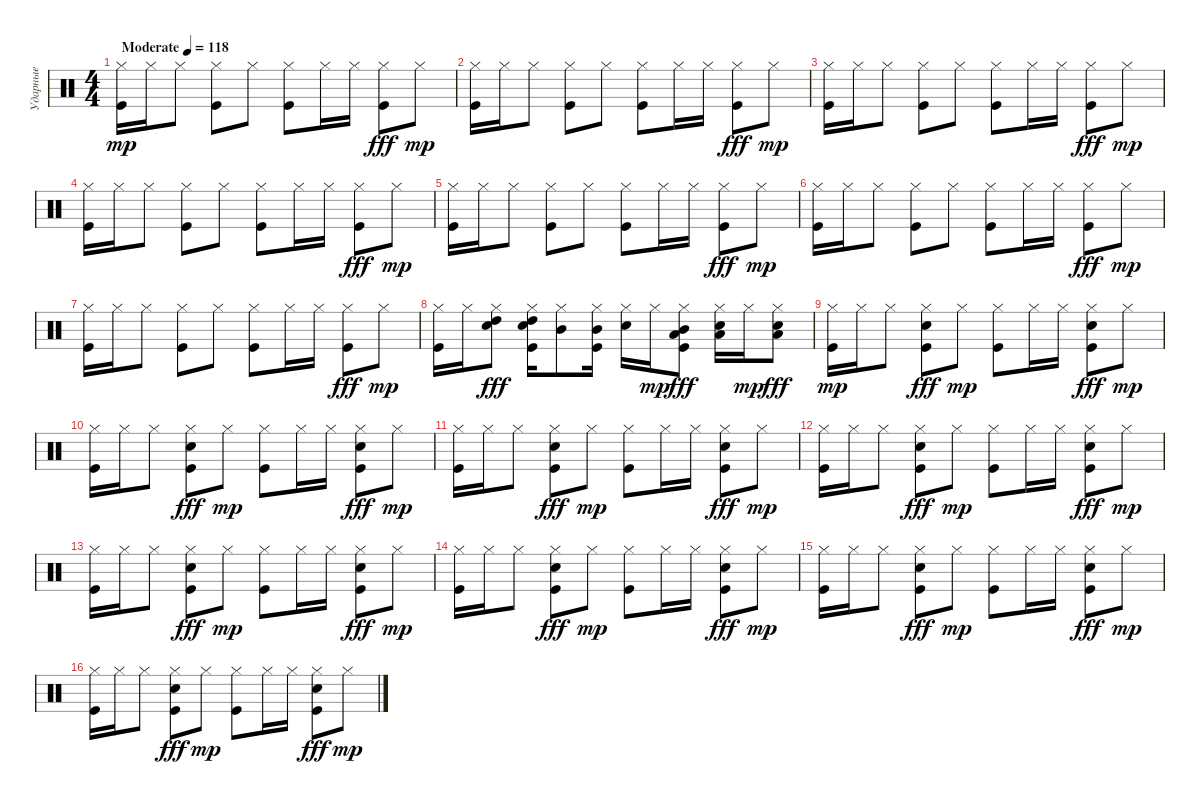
\track ("Ударные" "Ударные") {instrument percussion}
\staff {score}
\articulation defaults
\ts (4 4)
\tempo (118 "Moderate")
\clef neutral
\ks c
("Kick (hit)" "Hi-Hat (closed)").16{dy mp} "Hi-Hat (closed)".16 "Hi-Hat (closed)".8 ("Kick (hit)" "Hi-Hat (closed)").8 "Hi-Hat (closed)".8 ("Kick (hit)" "Hi-Hat (closed)").8 "Hi-Hat (closed)".16 "Hi-Hat (closed)".16 ("Hi-Hat (closed)" "Kick (hit)").8{dy fff} "Hi-Hat (closed)".8{dy mp} |
("Kick (hit)" "Hi-Hat (closed)").16 "Hi-Hat (closed)".16 "Hi-Hat (closed)".8 ("Kick (hit)" "Hi-Hat (closed)").8 "Hi-Hat (closed)".8 ("Kick (hit)" "Hi-Hat (closed)").8 "Hi-Hat (closed)".16 "Hi-Hat (closed)".16 ("Hi-Hat (closed)" "Kick (hit)").8{dy fff} "Hi-Hat (closed)".8{dy mp} |
("Kick (hit)" "Hi-Hat (closed)").16 "Hi-Hat (closed)".16 "Hi-Hat (closed)".8 ("Kick (hit)" "Hi-Hat (closed)").8 "Hi-Hat (closed)".8 ("Kick (hit)" "Hi-Hat (closed)").8 "Hi-Hat (closed)".16 "Hi-Hat (closed)".16 ("Hi-Hat (closed)" "Kick (hit)").8{dy fff} "Hi-Hat (closed)".8{dy mp} |
("Kick (hit)" "Hi-Hat (closed)").16 "Hi-Hat (closed)".16 "Hi-Hat (closed)".8 ("Kick (hit)" "Hi-Hat (closed)").8 "Hi-Hat (closed)".8 ("Kick (hit)" "Hi-Hat (closed)").8 "Hi-Hat (closed)".16 "Hi-Hat (closed)".16 ("Hi-Hat (closed)" "Kick (hit)").8{dy fff} "Hi-Hat (closed)".8{dy mp} |
("Kick (hit)" "Hi-Hat (closed)").16 "Hi-Hat (closed)".16 "Hi-Hat (closed)".8 ("Kick (hit)" "Hi-Hat (closed)").8 "Hi-Hat (closed)".8 ("Kick (hit)" "Hi-Hat (closed)").8 "Hi-Hat (closed)".16 "Hi-Hat (closed)".16 ("Hi-Hat (closed)" "Kick (hit)").8{dy fff} "Hi-Hat (closed)".8{dy mp} |
("Kick (hit)" "Hi-Hat (closed)").16 "Hi-Hat (closed)".16 "Hi-Hat (closed)".8 ("Kick (hit)" "Hi-Hat (closed)").8 "Hi-Hat (closed)".8 ("Kick (hit)" "Hi-Hat (closed)").8 "Hi-Hat (closed)".16 "Hi-Hat (closed)".16 ("Hi-Hat (closed)" "Kick (hit)").8{dy fff} "Hi-Hat (closed)".8{dy mp} |
("Kick (hit)" "Hi-Hat (closed)").16 "Hi-Hat (closed)".16 "Hi-Hat (closed)".8 ("Kick (hit)" "Hi-Hat (closed)").8 "Hi-Hat (closed)".8 ("Kick (hit)" "Hi-Hat (closed)").8 "Hi-Hat (closed)".16 "Hi-Hat (closed)".16 ("Hi-Hat (closed)" "Kick (hit)").8{dy fff} "Hi-Hat (closed)".8{dy mp} |
("Kick (hit)" "Hi-Hat (closed)").16 "Hi-Hat (closed)".16 ("Hi-Hat (closed)" "High Tom (hit)" "Electric Snare (hit)").8{dy fff} ("Kick (hit)" "Hi-Hat (closed)" "High Tom (hit)" "Electric Snare (hit)").16 ("Hi-Hat (closed)" "Mid Tom (hit)").8 ("Kick (hit)" "Hi-Hat (closed)" "Mid Tom (hit)").16 ("Hi-Hat (closed)" "Snare (hit) 2").16 "Hi-Hat (closed)".16{dy mp} ("Hi-Hat (closed)" "Kick (hit)" "Low Tom (hit)" "Mid Tom (hit)").8{dy fff} ("Hi-Hat (closed)" "Low Tom (hit)" "Electric Snare (hit)").16 "Hi-Hat (closed)".16{dy mp} ("Low Tom (hit)" "Hi-Hat (closed)" "Electric Snare (hit)").8{dy fff} |
("Kick (hit)" "Hi-Hat (closed)").16{dy mp} "Hi-Hat (closed)".16 "Hi-Hat (closed)".8 ("Kick (hit)" "Hi-Hat (closed)" "Electric Snare (hit)").8{dy fff} "Hi-Hat (closed)".8{dy mp} ("Kick (hit)" "Hi-Hat (closed)").8 "Hi-Hat (closed)".16 "Hi-Hat (closed)".16 ("Hi-Hat (closed)" "Kick (hit)" "Electric Snare (hit)").8{dy fff} "Hi-Hat (closed)".8{dy mp} |
("Kick (hit)" "Hi-Hat (closed)").16 "Hi-Hat (closed)".16 "Hi-Hat (closed)".8 ("Kick (hit)" "Hi-Hat (closed)" "Electric Snare (hit)").8{dy fff} "Hi-Hat (closed)".8{dy mp} ("Kick (hit)" "Hi-Hat (closed)").8 "Hi-Hat (closed)".16 "Hi-Hat (closed)".16 ("Hi-Hat (closed)" "Kick (hit)" "Electric Snare (hit)").8{dy fff} "Hi-Hat (closed)".8{dy mp} |
("Kick (hit)" "Hi-Hat (closed)").16 "Hi-Hat (closed)".16 "Hi-Hat (closed)".8 ("Kick (hit)" "Hi-Hat (closed)" "Electric Snare (hit)").8{dy fff} "Hi-Hat (closed)".8{dy mp} ("Kick (hit)" "Hi-Hat (closed)").8 "Hi-Hat (closed)".16 "Hi-Hat (closed)".16 ("Hi-Hat (closed)" "Kick (hit)" "Electric Snare (hit)").8{dy fff} "Hi-Hat (closed)".8{dy mp} |
("Kick (hit)" "Hi-Hat (closed)").16 "Hi-Hat (closed)".16 "Hi-Hat (closed)".8 ("Kick (hit)" "Hi-Hat (closed)" "Electric Snare (hit)").8{dy fff} "Hi-Hat (closed)".8{dy mp} ("Kick (hit)" "Hi-Hat (closed)").8 "Hi-Hat (closed)".16 "Hi-Hat (closed)".16 ("Hi-Hat (closed)" "Kick (hit)" "Electric Snare (hit)").8{dy fff} "Hi-Hat (closed)".8{dy mp} |
("Kick (hit)" "Hi-Hat (closed)").16 "Hi-Hat (closed)".16 "Hi-Hat (closed)".8 ("Kick (hit)" "Hi-Hat (closed)" "Electric Snare (hit)").8{dy fff} "Hi-Hat (closed)".8{dy mp} ("Kick (hit)" "Hi-Hat (closed)").8 "Hi-Hat (closed)".16 "Hi-Hat (closed)".16 ("Hi-Hat (closed)" "Kick (hit)" "Electric Snare (hit)").8{dy fff} "Hi-Hat (closed)".8{dy mp} |
("Kick (hit)" "Hi-Hat (closed)").16 "Hi-Hat (closed)".16 "Hi-Hat (closed)".8 ("Kick (hit)" "Hi-Hat (closed)" "Electric Snare (hit)").8{dy fff} "Hi-Hat (closed)".8{dy mp} ("Kick (hit)" "Hi-Hat (closed)").8 "Hi-Hat (closed)".16 "Hi-Hat (closed)".16 ("Hi-Hat (closed)" "Kick (hit)" "Electric Snare (hit)").8{dy fff} "Hi-Hat (closed)".8{dy mp} |
("Kick (hit)" "Hi-Hat (closed)").16 "Hi-Hat (closed)".16 "Hi-Hat (closed)".8 ("Kick (hit)" "Hi-Hat (closed)" "Electric Snare (hit)").8{dy fff} "Hi-Hat (closed)".8{dy mp} ("Kick (hit)" "Hi-Hat (closed)").8 "Hi-Hat (closed)".16 "Hi-Hat (closed)".16 ("Hi-Hat (closed)" "Kick (hit)" "Electric Snare (hit)").8{dy fff} "Hi-Hat (closed)".8{dy mp} |
("Kick (hit)" "Hi-Hat (closed)").16 "Hi-Hat (closed)".16 "Hi-Hat (closed)".8 ("Kick (hit)" "Hi-Hat (closed)" "Electric Snare (hit)").8{dy fff} "Hi-Hat (closed)".8{dy mp} ("Kick (hit)" "Hi-Hat (closed)").8 "Hi-Hat (closed)".16 "Hi-Hat (closed)".16 ("Hi-Hat (closed)" "Kick (hit)" "Electric Snare (hit)").8{dy fff} "Hi-Hat (closed)".8{dy mp}
